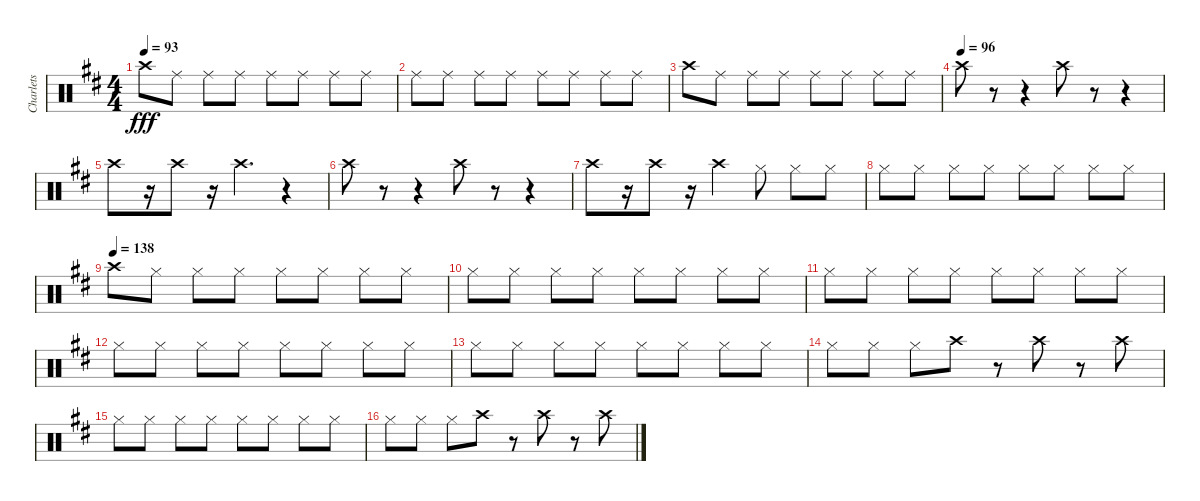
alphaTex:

\track ("Charlets" "Charlets") {instrument percussion}
\staff {score}
\articulation defaults
\ts (4 4)
\tempo 93
\clef neutral
\ks d "Crash high (hit)".8{dy fff} "Ride (middle)".8 "Ride (middle)".8 "Ride (middle)".8 "Ride (middle)".8 "Ride (middle)".8 "Ride (middle)".8 "Ride (middle)".8
|
"Ride (middle)".8 "Ride (middle)".8 "Ride (middle)".8 "Ride (middle)".8 "Ride (middle)".8 "Ride (middle)".8 "Ride (middle)".8 "Ride (middle)".8 |
"Crash high (hit)".8 "Ride (middle)".8 "Ride (middle)".8 "Ride (middle)".8 "Ride (middle)".8 "Ride (middle)".8 "Ride (middle)".8 "Ride (middle)".8 |
\tempo (96)
"Crash high (hit)".8 r.8 r.4 "Crash high (hit)".8 r.8 r.4 |
"Crash high (hit)".8 r.16 "Crash high (hit)".8 r.16 "Crash high (hit)".4{d} r.4 |
"Crash high (hit)".8 r.8 r.4 "Crash high (hit)".8 r.8 r.4 |
"Crash high (hit)".8 r.16 "Crash high (hit)".8 r.16 "Crash high (hit)".4 "Hi-Hat (closed)".8 "Hi-Hat (closed)".8 "Hi-Hat (closed)".8 |
"Hi-Hat (closed)".8 "Hi-Hat (closed)".8 "Hi-Hat (closed)".8 "Hi-Hat (closed)".8 "Hi-Hat (closed)".8 "Hi-Hat (closed)".8 "Hi-Hat (closed)".8 "Hi-Hat (closed)".8 |
\tempo (138)
"Crash high (hit)".8 "Hi-Hat (closed)".8 "Hi-Hat (closed)".8 "Hi-Hat (closed)".8 "Hi-Hat (closed)".8 "Hi-Hat (closed)".8 "Hi-Hat (closed)".8 "Hi-Hat (closed)".8 |
"Hi-Hat (closed)".8 "Hi-Hat (closed)".8 "Hi-Hat (closed)".8 "Hi-Hat (closed)".8 "Hi-Hat (closed)".8 "Hi-Hat (closed)".8 "Hi-Hat (closed)".8 "Hi-Hat (closed)".8 |
"Hi-Hat (closed)".8 "Hi-Hat (closed)".8 "Hi-Hat (closed)".8 "Hi-Hat (closed)".8 "Hi-Hat (closed)".8 "Hi-Hat (closed)".8 "Hi-Hat (closed)".8 "Hi-Hat (closed)".8 |
"Hi-Hat (closed)".8 "Hi-Hat (closed)".8 "Hi-Hat (closed)".8 "Hi-Hat (closed)".8 "Hi-Hat (closed)".8 "Hi-Hat (closed)".8 "Hi-Hat (closed)".8 "Hi-Hat (closed)".8 |
"Hi-Hat (closed)".8 "Hi-Hat (closed)".8 "Hi-Hat (closed)".8 "Hi-Hat (closed)".8 "Hi-Hat (closed)".8 "Hi-Hat (closed)".8 "Hi-Hat (closed)".8 "Hi-Hat (closed)".8 |
"Hi-Hat (closed)".8 "Hi-Hat (closed)".8 "Hi-Hat (closed)".8 "Crash high (hit)".8 r.8 "Crash high (hit)".8 r.8 "Crash high (hit)".8 |
"Hi-Hat (closed)".8 "Hi-Hat (closed)".8 "Hi-Hat (closed)".8 "Hi-Hat (closed)".8 "Hi-Hat (closed)".8 "Hi-Hat (closed)".8 "Hi-Hat (closed)".8 "Hi-Hat (closed)".8 |
"Hi-Hat (closed)".8 "Hi-Hat (closed)".8 "Hi-Hat (closed)".8 "Crash high (hit)".8 r.8 "Crash high (hit)".8 r.8 "Crash high (hit)".8
